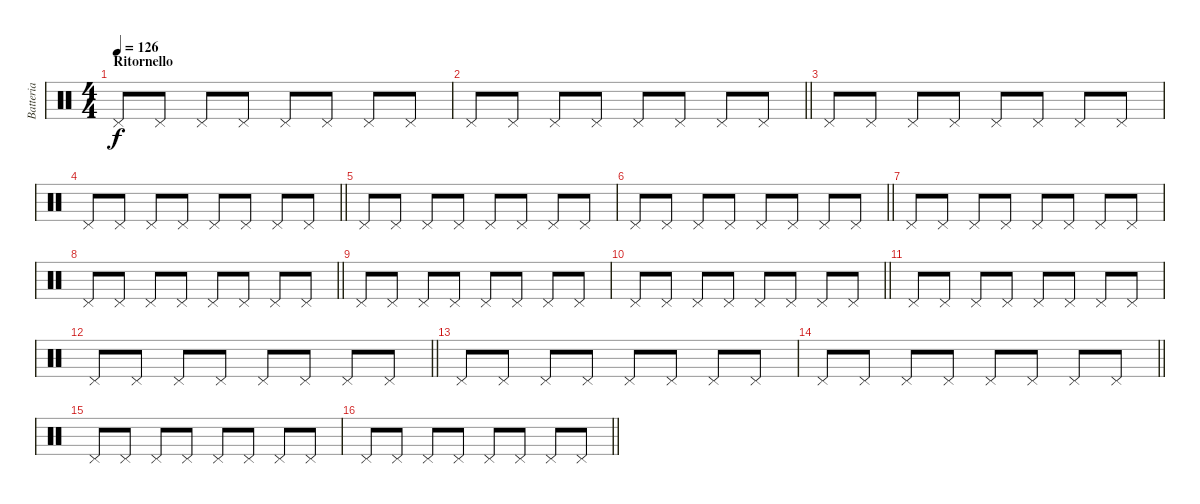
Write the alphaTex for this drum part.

\track ("Batteria" "Batteria") {instrument percussion}
\staff {score}
\articulation defaults
\ts (4 4)
\section ("" "Ritornello")
\tempo 126
\clef neutral
\ks c "Pedal Hi-Hat (hit)".8{dy f} "Pedal Hi-Hat (hit)".8 "Pedal Hi-Hat (hit)".8 "Pedal Hi-Hat (hit)".8 "Pedal Hi-Hat (hit)".8 "Pedal Hi-Hat (hit)".8 "Pedal Hi-Hat (hit)".8 "Pedal Hi-Hat (hit)".8
|
\barLineRight lightlight "Pedal Hi-Hat (hit)".8 "Pedal Hi-Hat (hit)".8 "Pedal Hi-Hat (hit)".8 "Pedal Hi-Hat (hit)".8 "Pedal Hi-Hat (hit)".8 "Pedal Hi-Hat (hit)".8 "Pedal Hi-Hat (hit)".8 "Pedal Hi-Hat (hit)".8
|
"Pedal Hi-Hat (hit)".8 "Pedal Hi-Hat (hit)".8 "Pedal Hi-Hat (hit)".8 "Pedal Hi-Hat (hit)".8 "Pedal Hi-Hat (hit)".8 "Pedal Hi-Hat (hit)".8 "Pedal Hi-Hat (hit)".8 "Pedal Hi-Hat (hit)".8 |
\barLineRight lightlight "Pedal Hi-Hat (hit)".8 "Pedal Hi-Hat (hit)".8 "Pedal Hi-Hat (hit)".8 "Pedal Hi-Hat (hit)".8 "Pedal Hi-Hat (hit)".8 "Pedal Hi-Hat (hit)".8 "Pedal Hi-Hat (hit)".8 "Pedal Hi-Hat (hit)".8
|
"Pedal Hi-Hat (hit)".8 "Pedal Hi-Hat (hit)".8 "Pedal Hi-Hat (hit)".8 "Pedal Hi-Hat (hit)".8 "Pedal Hi-Hat (hit)".8 "Pedal Hi-Hat (hit)".8 "Pedal Hi-Hat (hit)".8 "Pedal Hi-Hat (hit)".8 |
\barLineRight lightlight "Pedal Hi-Hat (hit)".8 "Pedal Hi-Hat (hit)".8 "Pedal Hi-Hat (hit)".8 "Pedal Hi-Hat (hit)".8 "Pedal Hi-Hat (hit)".8 "Pedal Hi-Hat (hit)".8 "Pedal Hi-Hat (hit)".8 "Pedal Hi-Hat (hit)".8
|
"Pedal Hi-Hat (hit)".8 "Pedal Hi-Hat (hit)".8 "Pedal Hi-Hat (hit)".8 "Pedal Hi-Hat (hit)".8 "Pedal Hi-Hat (hit)".8 "Pedal Hi-Hat (hit)".8 "Pedal Hi-Hat (hit)".8 "Pedal Hi-Hat (hit)".8 |
\barLineRight lightlight "Pedal Hi-Hat (hit)".8 "Pedal Hi-Hat (hit)".8 "Pedal Hi-Hat (hit)".8 "Pedal Hi-Hat (hit)".8 "Pedal Hi-Hat (hit)".8 "Pedal Hi-Hat (hit)".8 "Pedal Hi-Hat (hit)".8 "Pedal Hi-Hat (hit)".8
|
"Pedal Hi-Hat (hit)".8 "Pedal Hi-Hat (hit)".8 "Pedal Hi-Hat (hit)".8 "Pedal Hi-Hat (hit)".8 "Pedal Hi-Hat (hit)".8 "Pedal Hi-Hat (hit)".8 "Pedal Hi-Hat (hit)".8 "Pedal Hi-Hat (hit)".8 |
\barLineRight lightlight "Pedal Hi-Hat (hit)".8 "Pedal Hi-Hat (hit)".8 "Pedal Hi-Hat (hit)".8 "Pedal Hi-Hat (hit)".8 "Pedal Hi-Hat (hit)".8 "Pedal Hi-Hat (hit)".8 "Pedal Hi-Hat (hit)".8 "Pedal Hi-Hat (hit)".8
|
"Pedal Hi-Hat (hit)".8 "Pedal Hi-Hat (hit)".8 "Pedal Hi-Hat (hit)".8 "Pedal Hi-Hat (hit)".8 "Pedal Hi-Hat (hit)".8 "Pedal Hi-Hat (hit)".8 "Pedal Hi-Hat (hit)".8 "Pedal Hi-Hat (hit)".8 |
\barLineRight lightlight "Pedal Hi-Hat (hit)".8 "Pedal Hi-Hat (hit)".8 "Pedal Hi-Hat (hit)".8 "Pedal Hi-Hat (hit)".8 "Pedal Hi-Hat (hit)".8 "Pedal Hi-Hat (hit)".8 "Pedal Hi-Hat (hit)".8 "Pedal Hi-Hat (hit)".8
|
"Pedal Hi-Hat (hit)".8 "Pedal Hi-Hat (hit)".8 "Pedal Hi-Hat (hit)".8 "Pedal Hi-Hat (hit)".8 "Pedal Hi-Hat (hit)".8 "Pedal Hi-Hat (hit)".8 "Pedal Hi-Hat (hit)".8 "Pedal Hi-Hat (hit)".8 |
\barLineRight lightlight "Pedal Hi-Hat (hit)".8 "Pedal Hi-Hat (hit)".8 "Pedal Hi-Hat (hit)".8 "Pedal Hi-Hat (hit)".8 "Pedal Hi-Hat (hit)".8 "Pedal Hi-Hat (hit)".8 "Pedal Hi-Hat (hit)".8 "Pedal Hi-Hat (hit)".8
|
"Pedal Hi-Hat (hit)".8 "Pedal Hi-Hat (hit)".8 "Pedal Hi-Hat (hit)".8 "Pedal Hi-Hat (hit)".8 "Pedal Hi-Hat (hit)".8 "Pedal Hi-Hat (hit)".8 "Pedal Hi-Hat (hit)".8 "Pedal Hi-Hat (hit)".8 |
\barLineRight lightlight "Pedal Hi-Hat (hit)".8 "Pedal Hi-Hat (hit)".8 "Pedal Hi-Hat (hit)".8 "Pedal Hi-Hat (hit)".8 "Pedal Hi-Hat (hit)".8 "Pedal Hi-Hat (hit)".8 "Pedal Hi-Hat (hit)".8 "Pedal Hi-Hat (hit)".8
